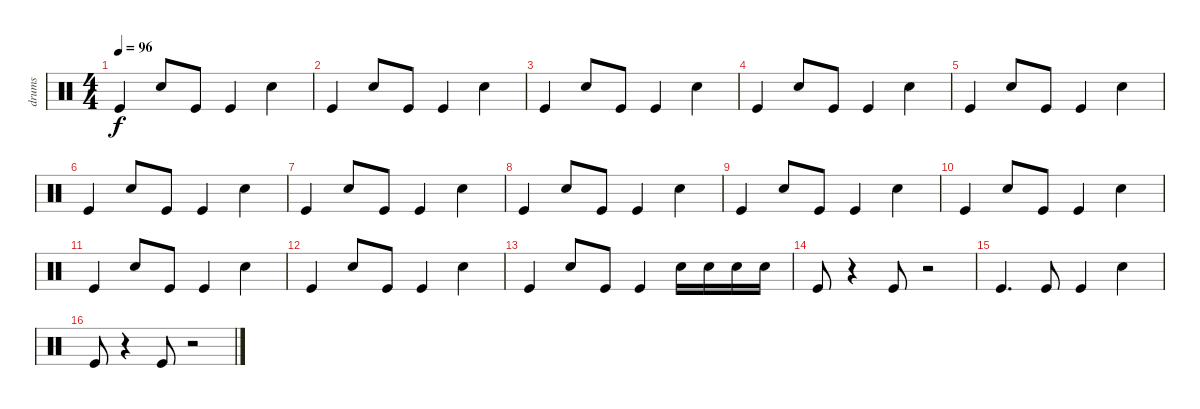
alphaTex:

\track ("drums" "drums") {instrument percussion}
\staff {score}
\articulation defaults
\ts (4 4)
\tempo 96
\clef neutral
\ks c "Kick (hit)".4{dy f} "Snare (hit) 2".8 "Kick (hit)".8 "Kick (hit)".4 "Snare (hit) 2".4
|
"Kick (hit)".4 "Snare (hit) 2".8 "Kick (hit)".8 "Kick (hit)".4 "Snare (hit) 2".4 |
"Kick (hit)".4 "Snare (hit) 2".8 "Kick (hit)".8 "Kick (hit)".4 "Snare (hit) 2".4 |
"Kick (hit)".4 "Snare (hit) 2".8 "Kick (hit)".8 "Kick (hit)".4 "Snare (hit) 2".4 |
"Kick (hit)".4 "Snare (hit) 2".8 "Kick (hit)".8 "Kick (hit)".4 "Snare (hit) 2".4 |
"Kick (hit)".4 "Snare (hit) 2".8 "Kick (hit)".8 "Kick (hit)".4 "Snare (hit) 2".4 |
"Kick (hit)".4 "Snare (hit) 2".8 "Kick (hit)".8 "Kick (hit)".4 "Snare (hit) 2".4 |
"Kick (hit)".4 "Snare (hit) 2".8 "Kick (hit)".8 "Kick (hit)".4 "Snare (hit) 2".4 |
"Kick (hit)".4 "Snare (hit) 2".8 "Kick (hit)".8 "Kick (hit)".4 "Snare (hit) 2".4 |
"Kick (hit)".4 "Snare (hit) 2".8 "Kick (hit)".8 "Kick (hit)".4 "Snare (hit) 2".4 |
"Kick (hit)".4 "Snare (hit) 2".8 "Kick (hit)".8 "Kick (hit)".4 "Snare (hit) 2".4 |
"Kick (hit)".4 "Snare (hit) 2".8 "Kick (hit)".8 "Kick (hit)".4 "Snare (hit) 2".4 |
"Kick (hit)".4 "Snare (hit) 2".8 "Kick (hit)".8 "Kick (hit)".4 "Snare (hit) 2".16 "Snare (hit) 2".16 "Snare (hit) 2".16 "Snare (hit) 2".16 |
"Kick (hit)".8 r.4 "Kick (hit)".8 r.2 |
"Kick (hit)".4{d} "Kick (hit)".8 "Kick (hit)".4 "Snare (hit) 2".4 |
"Kick (hit)".8 r.4 "Kick (hit)".8 r.2
